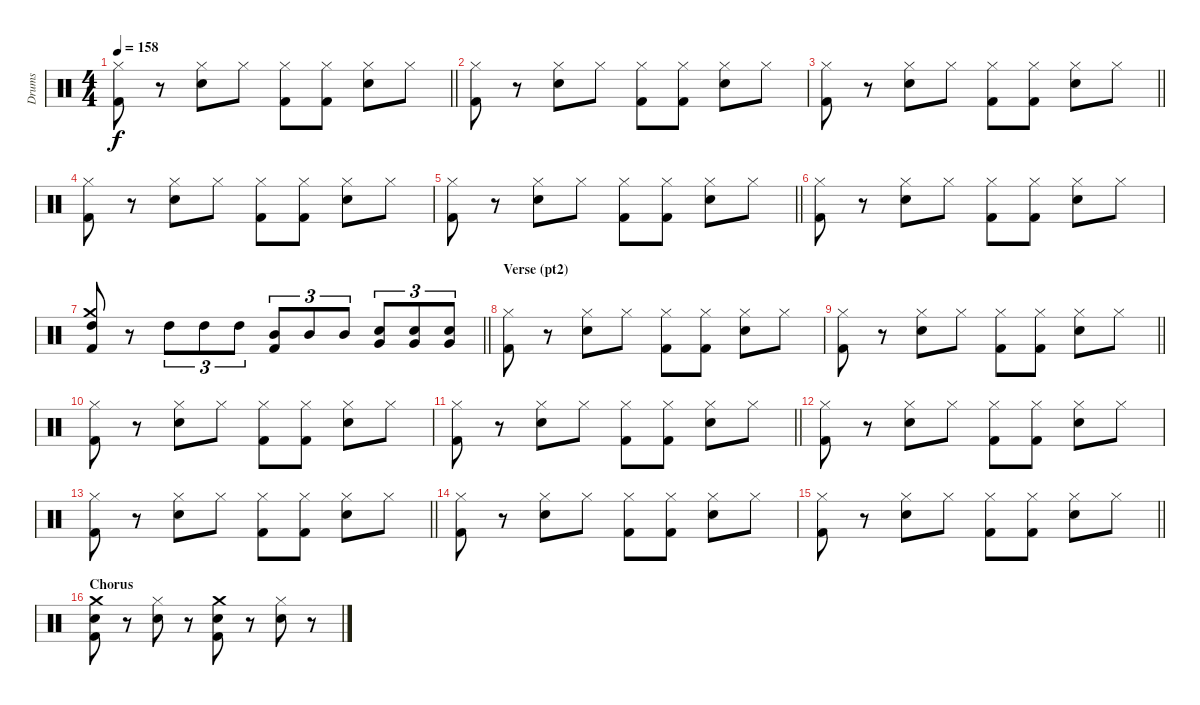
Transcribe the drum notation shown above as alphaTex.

\track ("Drums" "Drums") {instrument percussion}
\staff
\articulation defaults
\ts (4 4)
\tempo 158
\clef neutral
\barLineRight lightlight
\ks c
("Hi-Hat (closed)" "Kick (hit) 2").8{dy f} r.8 ("Hi-Hat (closed)" "Electric Snare (hit)").8 "Hi-Hat (closed)".8 ("Hi-Hat (closed)" "Kick (hit) 2").8 ("Hi-Hat (closed)" "Kick (hit) 2").8 ("Hi-Hat (closed)" "Electric Snare (hit)").8 "Hi-Hat (closed)".8 |
("Hi-Hat (closed)" "Kick (hit) 2").8 r.8 ("Hi-Hat (closed)" "Electric Snare (hit)").8 "Hi-Hat (closed)".8 ("Hi-Hat (closed)" "Kick (hit) 2").8 ("Hi-Hat (closed)" "Kick (hit) 2").8 ("Hi-Hat (closed)" "Electric Snare (hit)").8 "Hi-Hat (closed)".8 |
\barLineRight lightlight
("Hi-Hat (closed)" "Kick (hit) 2").8 r.8 ("Hi-Hat (closed)" "Electric Snare (hit)").8 "Hi-Hat (closed)".8 ("Hi-Hat (closed)" "Kick (hit) 2").8 ("Hi-Hat (closed)" "Kick (hit) 2").8 ("Hi-Hat (closed)" "Electric Snare (hit)").8 "Hi-Hat (closed)".8 |
("Hi-Hat (closed)" "Kick (hit) 2").8 r.8 ("Hi-Hat (closed)" "Electric Snare (hit)").8 "Hi-Hat (closed)".8 ("Hi-Hat (closed)" "Kick (hit) 2").8 ("Hi-Hat (closed)" "Kick (hit) 2").8 ("Hi-Hat (closed)" "Electric Snare (hit)").8 "Hi-Hat (closed)".8 |
\barLineRight lightlight
("Hi-Hat (closed)" "Kick (hit) 2").8 r.8 ("Hi-Hat (closed)" "Electric Snare (hit)").8 "Hi-Hat (closed)".8 ("Hi-Hat (closed)" "Kick (hit) 2").8 ("Hi-Hat (closed)" "Kick (hit) 2").8 ("Hi-Hat (closed)" "Electric Snare (hit)").8 "Hi-Hat (closed)".8 |
("Hi-Hat (closed)" "Kick (hit) 2").8 r.8 ("Hi-Hat (closed)" "Electric Snare (hit)").8 "Hi-Hat (closed)".8 ("Hi-Hat (closed)" "Kick (hit) 2").8 ("Hi-Hat (closed)" "Kick (hit) 2").8 ("Hi-Hat (closed)" "Electric Snare (hit)").8 "Hi-Hat (closed)".8 |
\barLineRight lightlight
("Crash medium (hit)" "High Tom (hit)" "Kick (hit) 2").8 r.8 "High Tom (hit)".8{tu (3 2)} "High Tom (hit)".8{tu (3 2)} "High Tom (hit)".8{tu (3 2)} ("Mid Tom (hit)" "Kick (hit) 2").8{tu (3 2)} "Mid Tom (hit)".8{tu (3 2)} "Mid Tom (hit)".8{tu (3 2)} ("Electric Snare (hit)" "Very Low Tom (hit)").8{tu (3 2)} ("Electric Snare (hit)" "Very Low Tom (hit)").8{tu (3 2)} ("Electric Snare (hit)" "Very Low Tom (hit)").8{tu (3 2)} |
\section ("" "Verse (pt2)")
("Hi-Hat (closed)" "Kick (hit) 2").8 r.8 ("Hi-Hat (closed)" "Electric Snare (hit)").8 "Hi-Hat (closed)".8 ("Hi-Hat (closed)" "Kick (hit) 2").8 ("Hi-Hat (closed)" "Kick (hit) 2").8 ("Hi-Hat (closed)" "Electric Snare (hit)").8 "Hi-Hat (closed)".8 |
\barLineRight lightlight
("Hi-Hat (closed)" "Kick (hit) 2").8 r.8 ("Hi-Hat (closed)" "Electric Snare (hit)").8 "Hi-Hat (closed)".8 ("Hi-Hat (closed)" "Kick (hit) 2").8 ("Hi-Hat (closed)" "Kick (hit) 2").8 ("Hi-Hat (closed)" "Electric Snare (hit)").8 "Hi-Hat (closed)".8 |
("Hi-Hat (closed)" "Kick (hit) 2").8 r.8 ("Hi-Hat (closed)" "Electric Snare (hit)").8 "Hi-Hat (closed)".8 ("Hi-Hat (closed)" "Kick (hit) 2").8 ("Hi-Hat (closed)" "Kick (hit) 2").8 ("Hi-Hat (closed)" "Electric Snare (hit)").8 "Hi-Hat (closed)".8 |
\barLineRight lightlight
("Hi-Hat (closed)" "Kick (hit) 2").8 r.8 ("Hi-Hat (closed)" "Electric Snare (hit)").8 "Hi-Hat (closed)".8 ("Hi-Hat (closed)" "Kick (hit) 2").8 ("Hi-Hat (closed)" "Kick (hit) 2").8 ("Hi-Hat (closed)" "Electric Snare (hit)").8 "Hi-Hat (closed)".8 |
("Hi-Hat (closed)" "Kick (hit) 2").8 r.8 ("Hi-Hat (closed)" "Electric Snare (hit)").8 "Hi-Hat (closed)".8 ("Hi-Hat (closed)" "Kick (hit) 2").8 ("Hi-Hat (closed)" "Kick (hit) 2").8 ("Hi-Hat (closed)" "Electric Snare (hit)").8 "Hi-Hat (closed)".8 |
\barLineRight lightlight
("Hi-Hat (closed)" "Kick (hit) 2").8 r.8 ("Hi-Hat (closed)" "Electric Snare (hit)").8 "Hi-Hat (closed)".8 ("Hi-Hat (closed)" "Kick (hit) 2").8 ("Hi-Hat (closed)" "Kick (hit) 2").8 ("Hi-Hat (closed)" "Electric Snare (hit)").8 "Hi-Hat (closed)".8 |
("Hi-Hat (closed)" "Kick (hit) 2").8 r.8 ("Hi-Hat (closed)" "Electric Snare (hit)").8 "Hi-Hat (closed)".8 ("Hi-Hat (closed)" "Kick (hit) 2").8 ("Hi-Hat (closed)" "Kick (hit) 2").8 ("Hi-Hat (closed)" "Electric Snare (hit)").8 "Hi-Hat (closed)".8 |
\barLineRight lightlight
("Hi-Hat (closed)" "Kick (hit) 2").8 r.8 ("Hi-Hat (closed)" "Electric Snare (hit)").8 "Hi-Hat (closed)".8 ("Hi-Hat (closed)" "Kick (hit) 2").8 ("Hi-Hat (closed)" "Kick (hit) 2").8 ("Hi-Hat (closed)" "Electric Snare (hit)").8 "Hi-Hat (closed)".8 |
\section ("" "Chorus")
("Crash medium (hit)" "Electric Snare (hit)" "Kick (hit) 2").8 r.8 ("Hi-Hat (closed)" "Electric Snare (hit)").8 r.8 ("Crash medium (hit)" "Electric Snare (hit)" "Kick (hit) 2").8 r.8 ("Hi-Hat (closed)" "Electric Snare (hit)").8 r.8
